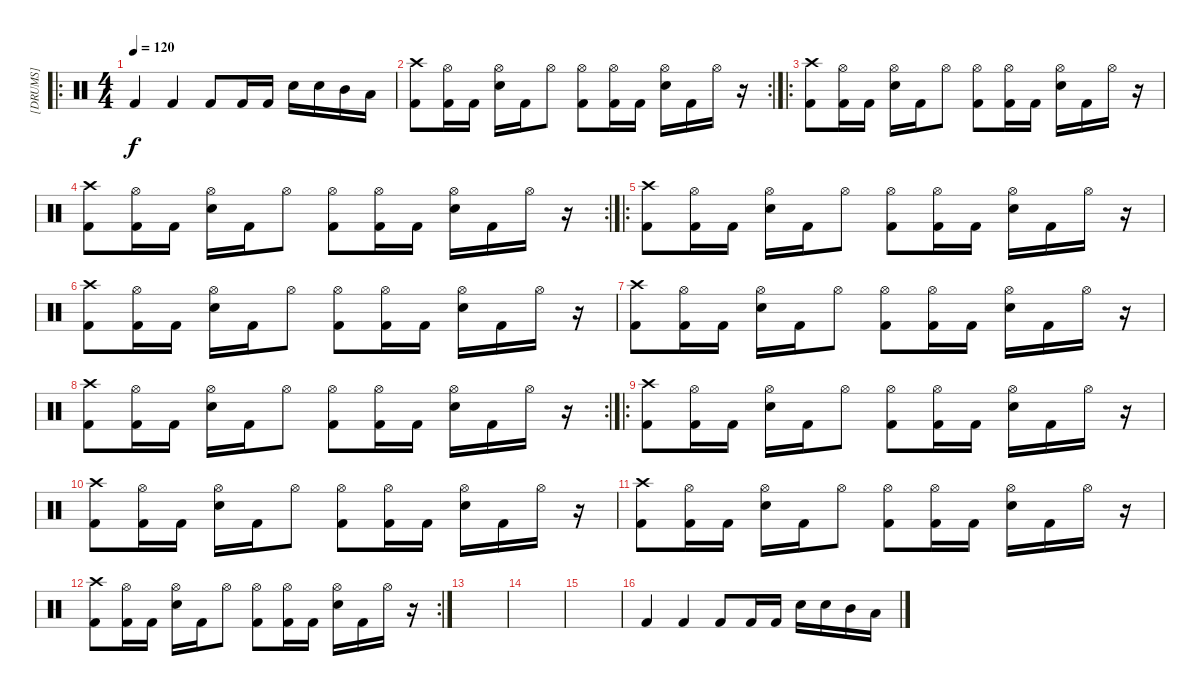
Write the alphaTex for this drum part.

\track ("[DRUMS]" "[DRUMS]") {instrument percussion}
\staff {score}
\articulation defaults
\ro
\ts (4 4)
\tempo 120
\clef neutral
\ks c "Kick (hit) 2".4{dy f} "Kick (hit) 2".4 "Kick (hit) 2".8 "Kick (hit) 2".16 "Kick (hit) 2".16 "Electric Snare (hit)".16 "Electric Snare (hit)".16 "Mid Tom (hit)".16 "Low Tom (hit)".16
|
\rc 2
("Crash high (hit)" "Kick (hit) 2").8 ("Hi-Hat (open)" "Kick (hit) 2").16 "Kick (hit) 2".16 ("Hi-Hat (open)" "Electric Snare (hit)").16 "Kick (hit) 2".16 "Hi-Hat (open)".8 ("Hi-Hat (open)" "Kick (hit) 2").8 ("Hi-Hat (open)" "Kick (hit) 2").16 "Kick (hit) 2".16 ("Hi-Hat (open)" "Electric Snare (hit)").16 "Kick (hit) 2".16 "Hi-Hat (open)".16 r.16 |
\ro
("Crash high (hit)" "Kick (hit) 2").8 ("Hi-Hat (open)" "Kick (hit) 2").16 "Kick (hit) 2".16 ("Hi-Hat (open)" "Electric Snare (hit)").16 "Kick (hit) 2".16 "Hi-Hat (open)".8 ("Hi-Hat (open)" "Kick (hit) 2").8 ("Hi-Hat (open)" "Kick (hit) 2").16 "Kick (hit) 2".16 ("Hi-Hat (open)" "Electric Snare (hit)").16 "Kick (hit) 2".16 "Hi-Hat (open)".16 r.16 |
\rc 2
("Crash high (hit)" "Kick (hit) 2").8 ("Hi-Hat (open)" "Kick (hit) 2").16 "Kick (hit) 2".16 ("Hi-Hat (open)" "Electric Snare (hit)").16 "Kick (hit) 2".16 "Hi-Hat (open)".8 ("Hi-Hat (open)" "Kick (hit) 2").8 ("Hi-Hat (open)" "Kick (hit) 2").16 "Kick (hit) 2".16 ("Hi-Hat (open)" "Electric Snare (hit)").16 "Kick (hit) 2".16 "Hi-Hat (open)".16 r.16 |
\ro
("Crash high (hit)" "Kick (hit) 2").8 ("Hi-Hat (open)" "Kick (hit) 2").16 "Kick (hit) 2".16 ("Hi-Hat (open)" "Electric Snare (hit)").16 "Kick (hit) 2".16 "Hi-Hat (open)".8 ("Hi-Hat (open)" "Kick (hit) 2").8 ("Hi-Hat (open)" "Kick (hit) 2").16 "Kick (hit) 2".16 ("Hi-Hat (open)" "Electric Snare (hit)").16 "Kick (hit) 2".16 "Hi-Hat (open)".16 r.16 |
("Crash high (hit)" "Kick (hit) 2").8 ("Hi-Hat (open)" "Kick (hit) 2").16 "Kick (hit) 2".16 ("Hi-Hat (open)" "Electric Snare (hit)").16 "Kick (hit) 2".16 "Hi-Hat (open)".8 ("Hi-Hat (open)" "Kick (hit) 2").8 ("Hi-Hat (open)" "Kick (hit) 2").16 "Kick (hit) 2".16 ("Hi-Hat (open)" "Electric Snare (hit)").16 "Kick (hit) 2".16 "Hi-Hat (open)".16 r.16 |
("Crash high (hit)" "Kick (hit) 2").8 ("Hi-Hat (open)" "Kick (hit) 2").16 "Kick (hit) 2".16 ("Hi-Hat (open)" "Electric Snare (hit)").16 "Kick (hit) 2".16 "Hi-Hat (open)".8 ("Hi-Hat (open)" "Kick (hit) 2").8 ("Hi-Hat (open)" "Kick (hit) 2").16 "Kick (hit) 2".16 ("Hi-Hat (open)" "Electric Snare (hit)").16 "Kick (hit) 2".16 "Hi-Hat (open)".16 r.16 |
\rc 2
("Crash high (hit)" "Kick (hit) 2").8 ("Hi-Hat (open)" "Kick (hit) 2").16 "Kick (hit) 2".16 ("Hi-Hat (open)" "Electric Snare (hit)").16 "Kick (hit) 2".16 "Hi-Hat (open)".8 ("Hi-Hat (open)" "Kick (hit) 2").8 ("Hi-Hat (open)" "Kick (hit) 2").16 "Kick (hit) 2".16 ("Hi-Hat (open)" "Electric Snare (hit)").16 "Kick (hit) 2".16 "Hi-Hat (open)".16 r.16 |
\ro
("Crash high (hit)" "Kick (hit) 2").8 ("Hi-Hat (open)" "Kick (hit) 2").16 "Kick (hit) 2".16 ("Hi-Hat (open)" "Electric Snare (hit)").16 "Kick (hit) 2".16 "Hi-Hat (open)".8 ("Hi-Hat (open)" "Kick (hit) 2").8 ("Hi-Hat (open)" "Kick (hit) 2").16 "Kick (hit) 2".16 ("Hi-Hat (open)" "Electric Snare (hit)").16 "Kick (hit) 2".16 "Hi-Hat (open)".16 r.16 |
("Crash high (hit)" "Kick (hit) 2").8 ("Hi-Hat (open)" "Kick (hit) 2").16 "Kick (hit) 2".16 ("Hi-Hat (open)" "Electric Snare (hit)").16 "Kick (hit) 2".16 "Hi-Hat (open)".8 ("Hi-Hat (open)" "Kick (hit) 2").8 ("Hi-Hat (open)" "Kick (hit) 2").16 "Kick (hit) 2".16 ("Hi-Hat (open)" "Electric Snare (hit)").16 "Kick (hit) 2".16 "Hi-Hat (open)".16 r.16 |
("Crash high (hit)" "Kick (hit) 2").8 ("Hi-Hat (open)" "Kick (hit) 2").16 "Kick (hit) 2".16 ("Hi-Hat (open)" "Electric Snare (hit)").16 "Kick (hit) 2".16 "Hi-Hat (open)".8 ("Hi-Hat (open)" "Kick (hit) 2").8 ("Hi-Hat (open)" "Kick (hit) 2").16 "Kick (hit) 2".16 ("Hi-Hat (open)" "Electric Snare (hit)").16 "Kick (hit) 2".16 "Hi-Hat (open)".16 r.16 |
\rc 2
("Crash high (hit)" "Kick (hit) 2").8 ("Hi-Hat (open)" "Kick (hit) 2").16 "Kick (hit) 2".16 ("Hi-Hat (open)" "Electric Snare (hit)").16 "Kick (hit) 2".16 "Hi-Hat (open)".8 ("Hi-Hat (open)" "Kick (hit) 2").8 ("Hi-Hat (open)" "Kick (hit) 2").16 "Kick (hit) 2".16 ("Hi-Hat (open)" "Electric Snare (hit)").16 "Kick (hit) 2".16 "Hi-Hat (open)".16 r.16 |
|
|
|
"Kick (hit) 2".4 "Kick (hit) 2".4 "Kick (hit) 2".8 "Kick (hit) 2".16 "Kick (hit) 2".16 "Electric Snare (hit)".16 "Electric Snare (hit)".16 "Mid Tom (hit)".16 "Low Tom (hit)".16
